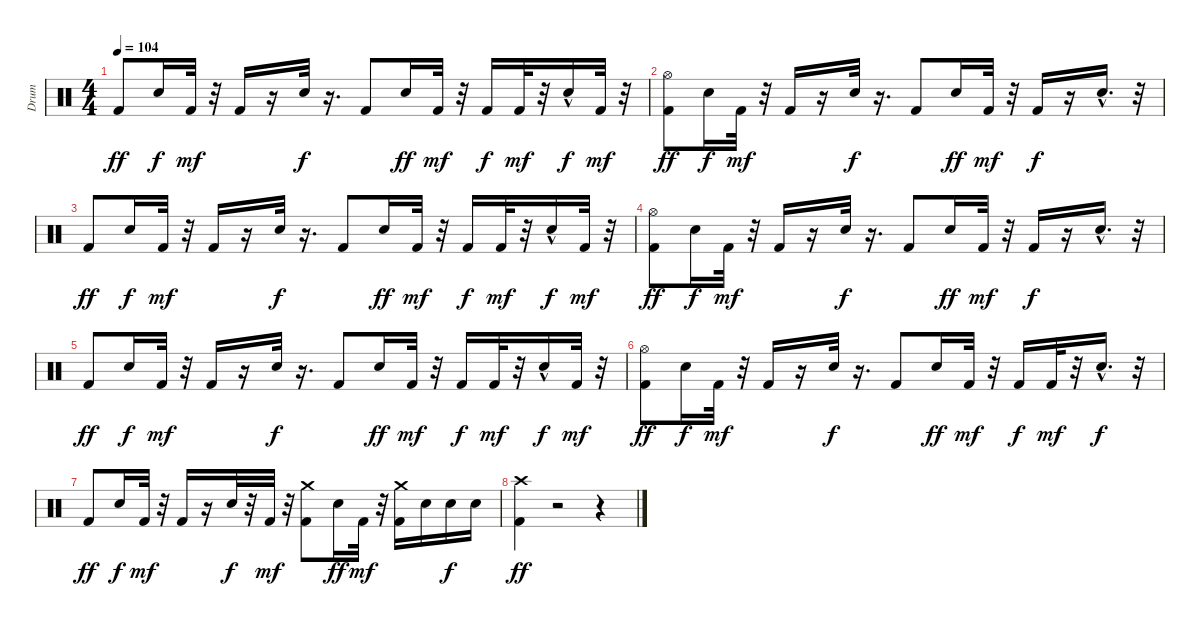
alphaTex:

\track ("Drum" "Drum") {instrument percussion}
\staff {score}
\articulation defaults
\ts (4 4)
\tempo 104
\clef neutral
\ks c "Kick (hit) 2".8{dy ff} "Electric Snare (hit)".16{dy f} "Kick (hit) 2".32{dy mf}
r.32 "Kick (hit) 2".16 r.16 "Electric Snare (hit)".32{dy f} r.16{d} "Kick (hit) 2".8 "Electric Snare (hit)".16{dy ff} "Kick (hit) 2".32{dy mf} r.32 "Kick (hit) 2".16{dy f} "Kick (hit) 2".32{dy mf} r.32 "Electric Snare (hit)"{hac}.16{dy f} "Kick (hit) 2".32{dy mf} r.32 |
("Hi-Hat (open)" "Kick (hit) 2").8{dy ff} "Electric Snare (hit)".16{dy f} "Kick (hit) 2".32{dy mf} r.32 "Kick (hit) 2".16 r.16 "Electric Snare (hit)".32{dy f} r.16{d} "Kick (hit) 2".8 "Electric Snare (hit)".16{dy ff} "Kick (hit) 2".32{dy mf} r.32 "Kick (hit) 2".16{dy f} r.16 "Electric Snare (hit)"{hac}.16{d} r.32 |
"Kick (hit) 2".8{dy ff} "Electric Snare (hit)".16{dy f} "Kick (hit) 2".32{dy mf} r.32 "Kick (hit) 2".16 r.16 "Electric Snare (hit)".32{dy f} r.16{d} "Kick (hit) 2".8 "Electric Snare (hit)".16{dy ff} "Kick (hit) 2".32{dy mf} r.32 "Kick (hit) 2".16{dy f} "Kick (hit) 2".32{dy mf} r.32 "Electric Snare (hit)"{hac}.16{dy f} "Kick (hit) 2".32{dy mf} r.32 |
("Hi-Hat (open)" "Kick (hit) 2").8{dy ff} "Electric Snare (hit)".16{dy f} "Kick (hit) 2".32{dy mf} r.32 "Kick (hit) 2".16 r.16 "Electric Snare (hit)".32{dy f} r.16{d} "Kick (hit) 2".8 "Electric Snare (hit)".16{dy ff} "Kick (hit) 2".32{dy mf} r.32 "Kick (hit) 2".16{dy f} r.16 "Electric Snare (hit)"{hac}.16{d} r.32 |
"Kick (hit) 2".8{dy ff} "Electric Snare (hit)".16{dy f} "Kick (hit) 2".32{dy mf} r.32 "Kick (hit) 2".16 r.16 "Electric Snare (hit)".32{dy f} r.16{d} "Kick (hit) 2".8 "Electric Snare (hit)".16{dy ff} "Kick (hit) 2".32{dy mf} r.32 "Kick (hit) 2".16{dy f} "Kick (hit) 2".32{dy mf} r.32 "Electric Snare (hit)"{hac}.16{dy f} "Kick (hit) 2".32{dy mf} r.32 |
("Hi-Hat (open)" "Kick (hit) 2").8{dy ff} "Electric Snare (hit)".16{dy f} "Kick (hit) 2".32{dy mf} r.32 "Kick (hit) 2".16 r.16 "Electric Snare (hit)".32{dy f} r.16{d} "Kick (hit) 2".8 "Electric Snare (hit)".16{dy ff} "Kick (hit) 2".32{dy mf} r.32 "Kick (hit) 2".16{dy f} "Kick (hit) 2".32{dy mf} r.32 "Electric Snare (hit)"{hac}.16{d dy f} r.32 |
"Kick (hit) 2".8{dy ff} "Electric Snare (hit)".16{dy f} "Kick (hit) 2".32{dy mf} r.32 "Kick (hit) 2".16 r.16 "Electric Snare (hit)".32{dy f} r.32 "Kick (hit) 2".32{dy mf} r.32 ("Crash medium (hit)" "Kick (hit) 2").8 "Electric Snare (hit)".16{dy ff} "Kick (hit) 2".32{dy mf} r.32 ("Crash medium (hit)" "Kick (hit) 2").16 "Electric Snare (hit)".16 "Electric Snare (hit)".16{dy f} "Electric Snare (hit)".16 |
("Crash high (hit)" "Kick (hit) 2").4{dy ff} r.2 r.4
